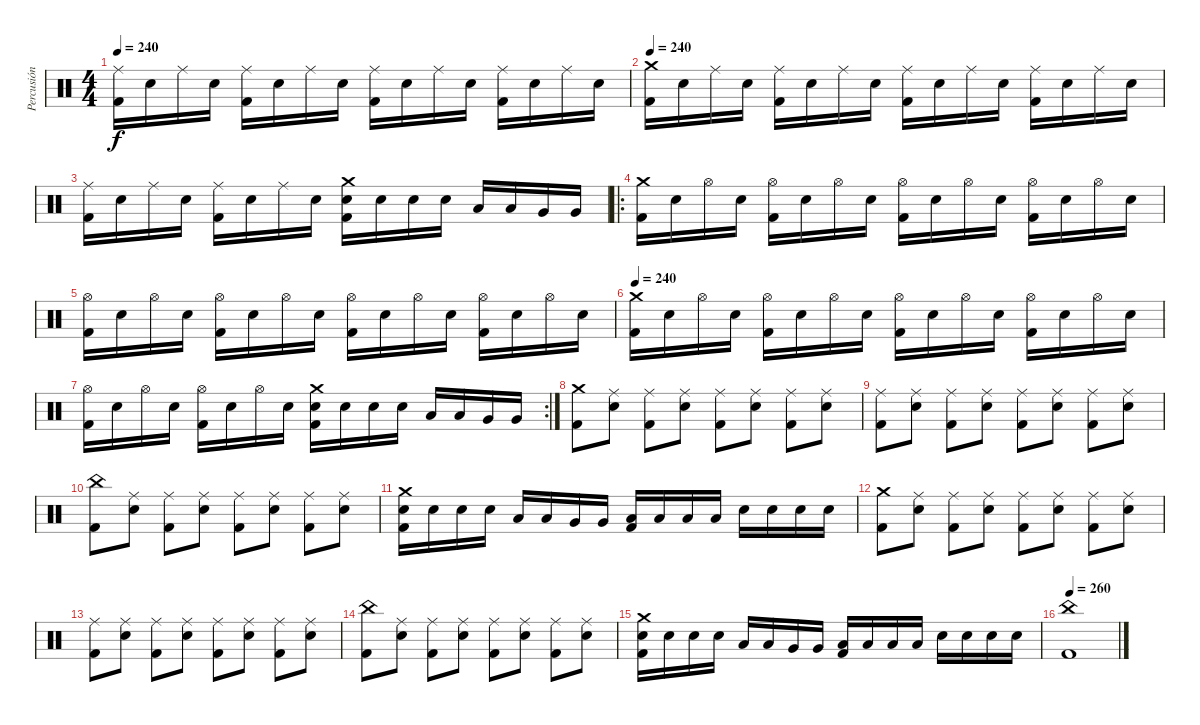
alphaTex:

\track ("Percusión" "Percusión") {instrument percussion}
\staff {score}
\articulation defaults
\ts (4 4)
\tempo 240
\clef neutral
\ks c
("Ride (middle)" "Kick (hit) 2").16{dy f} "Electric Snare (hit)".16 "Ride (middle)".16 "Electric Snare (hit)".16 ("Ride (middle)" "Kick (hit) 2").16 "Electric Snare (hit)".16 "Ride (middle)".16 "Electric Snare (hit)".16 ("Ride (middle)" "Kick (hit) 2").16 "Electric Snare (hit)".16 "Ride (middle)".16 "Electric Snare (hit)".16 ("Ride (middle)" "Kick (hit) 2").16 "Electric Snare (hit)".16 "Ride (middle)".16 "Electric Snare (hit)".16 |
\tempo 240
("Crash medium (hit)" "Kick (hit) 2").16 "Electric Snare (hit)".16 "Ride (middle)".16 "Electric Snare (hit)".16 ("Ride (middle)" "Kick (hit) 2").16 "Electric Snare (hit)".16 "Ride (middle)".16 "Electric Snare (hit)".16 ("Ride (middle)" "Kick (hit) 2").16 "Electric Snare (hit)".16 "Ride (middle)".16 "Electric Snare (hit)".16 ("Ride (middle)" "Kick (hit) 2").16 "Electric Snare (hit)".16 "Ride (middle)".16 "Electric Snare (hit)".16 |
("Ride (middle)" "Kick (hit) 2").16 "Electric Snare (hit)".16 "Ride (middle)".16 "Electric Snare (hit)".16 ("Ride (middle)" "Kick (hit) 2").16 "Electric Snare (hit)".16 "Ride (middle)".16 "Electric Snare (hit)".16 ("Crash medium (hit)" "Electric Snare (hit)" "Kick (hit) 2").16 "Electric Snare (hit)".16 "Electric Snare (hit)".16 "Electric Snare (hit)".16 "Low Tom (hit)".16 "Low Tom (hit)".16 "Very Low Tom (hit)".16 "Very Low Tom (hit)".16 |
\ro
("Crash medium (hit)" "Kick (hit) 2").16 "Electric Snare (hit)".16 "Hi-Hat (open)".16 "Electric Snare (hit)".16 ("Hi-Hat (open)" "Kick (hit) 2").16 "Electric Snare (hit)".16 "Hi-Hat (open)".16 "Electric Snare (hit)".16 ("Hi-Hat (open)" "Kick (hit) 2").16 "Electric Snare (hit)".16 "Hi-Hat (open)".16 "Electric Snare (hit)".16 ("Hi-Hat (open)" "Kick (hit) 2").16 "Electric Snare (hit)".16 "Hi-Hat (open)".16 "Electric Snare (hit)".16 |
("Hi-Hat (open)" "Kick (hit) 2").16 "Electric Snare (hit)".16 "Hi-Hat (open)".16 "Electric Snare (hit)".16 ("Hi-Hat (open)" "Kick (hit) 2").16 "Electric Snare (hit)".16 "Hi-Hat (open)".16 "Electric Snare (hit)".16 ("Hi-Hat (open)" "Kick (hit) 2").16 "Electric Snare (hit)".16 "Hi-Hat (open)".16 "Electric Snare (hit)".16 ("Hi-Hat (open)" "Kick (hit) 2").16 "Electric Snare (hit)".16 "Hi-Hat (open)".16 "Electric Snare (hit)".16 |
\tempo 240
("Crash medium (hit)" "Kick (hit) 2").16 "Electric Snare (hit)".16 "Hi-Hat (open)".16 "Electric Snare (hit)".16 ("Hi-Hat (open)" "Kick (hit) 2").16 "Electric Snare (hit)".16 "Hi-Hat (open)".16 "Electric Snare (hit)".16 ("Hi-Hat (open)" "Kick (hit) 2").16 "Electric Snare (hit)".16 "Hi-Hat (open)".16 "Electric Snare (hit)".16 ("Hi-Hat (open)" "Kick (hit) 2").16 "Electric Snare (hit)".16 "Hi-Hat (open)".16 "Electric Snare (hit)".16 |
\rc 2
("Hi-Hat (open)" "Kick (hit) 2").16 "Electric Snare (hit)".16 "Hi-Hat (open)".16 "Electric Snare (hit)".16 ("Hi-Hat (open)" "Kick (hit) 2").16 "Electric Snare (hit)".16 "Hi-Hat (open)".16 "Electric Snare (hit)".16 ("Crash medium (hit)" "Electric Snare (hit)" "Kick (hit) 2").16 "Electric Snare (hit)".16 "Electric Snare (hit)".16 "Electric Snare (hit)".16 "Low Tom (hit)".16 "Low Tom (hit)".16 "Very Low Tom (hit)".16 "Very Low Tom (hit)".16 |
("Crash medium (hit)" "Kick (hit) 2").8 ("Ride (middle)" "Electric Snare (hit)").8 ("Ride (middle)" "Kick (hit) 2").8 ("Ride (middle)" "Electric Snare (hit)").8 ("Ride (middle)" "Kick (hit) 2").8 ("Ride (middle)" "Electric Snare (hit)").8 ("Ride (middle)" "Kick (hit) 2").8 ("Ride (middle)" "Electric Snare (hit)").8 |
("Ride (middle)" "Kick (hit) 2").8 ("Ride (middle)" "Electric Snare (hit)").8 ("Ride (middle)" "Kick (hit) 2").8 ("Ride (middle)" "Electric Snare (hit)").8 ("Ride (middle)" "Kick (hit) 2").8 ("Ride (middle)" "Electric Snare (hit)").8 ("Ride (middle)" "Kick (hit) 2").8 ("Ride (middle)" "Electric Snare (hit)").8 |
("China (hit)" "Kick (hit) 2").8 ("Ride (middle)" "Electric Snare (hit)").8 ("Ride (middle)" "Kick (hit) 2").8 ("Ride (middle)" "Electric Snare (hit)").8 ("Ride (middle)" "Kick (hit) 2").8 ("Ride (middle)" "Electric Snare (hit)").8 ("Ride (middle)" "Kick (hit) 2").8 ("Ride (middle)" "Electric Snare (hit)").8 |
("Crash medium (hit)" "Electric Snare (hit)" "Kick (hit) 2").16 "Electric Snare (hit)".16 "Electric Snare (hit)".16 "Electric Snare (hit)".16 "Low Tom (hit)".16 "Low Tom (hit)".16 "Very Low Tom (hit)".16 "Very Low Tom (hit)".16 ("Low Tom (hit)" "Kick (hit) 2").16 "Low Tom (hit)".16 "Low Tom (hit)".16 "Low Tom (hit)".16 "Electric Snare (hit)".16 "Electric Snare (hit)".16 "Electric Snare (hit)".16 "Electric Snare (hit)".16 |
("Crash medium (hit)" "Kick (hit) 2").8 ("Ride (middle)" "Electric Snare (hit)").8 ("Ride (middle)" "Kick (hit) 2").8 ("Ride (middle)" "Electric Snare (hit)").8 ("Ride (middle)" "Kick (hit) 2").8 ("Ride (middle)" "Electric Snare (hit)").8 ("Ride (middle)" "Kick (hit) 2").8 ("Ride (middle)" "Electric Snare (hit)").8 |
("Ride (middle)" "Kick (hit) 2").8 ("Ride (middle)" "Electric Snare (hit)").8 ("Ride (middle)" "Kick (hit) 2").8 ("Ride (middle)" "Electric Snare (hit)").8 ("Ride (middle)" "Kick (hit) 2").8 ("Ride (middle)" "Electric Snare (hit)").8 ("Ride (middle)" "Kick (hit) 2").8 ("Ride (middle)" "Electric Snare (hit)").8 |
("China (hit)" "Kick (hit) 2").8 ("Ride (middle)" "Electric Snare (hit)").8 ("Ride (middle)" "Kick (hit) 2").8 ("Ride (middle)" "Electric Snare (hit)").8 ("Ride (middle)" "Kick (hit) 2").8 ("Ride (middle)" "Electric Snare (hit)").8 ("Ride (middle)" "Kick (hit) 2").8 ("Ride (middle)" "Electric Snare (hit)").8 |
("Crash medium (hit)" "Electric Snare (hit)" "Kick (hit) 2").16 "Electric Snare (hit)".16 "Electric Snare (hit)".16 "Electric Snare (hit)".16 "Low Tom (hit)".16 "Low Tom (hit)".16 "Very Low Tom (hit)".16 "Very Low Tom (hit)".16 ("Low Tom (hit)" "Kick (hit) 2").16 "Low Tom (hit)".16 "Low Tom (hit)".16 "Low Tom (hit)".16 "Electric Snare (hit)".16 "Electric Snare (hit)".16 "Electric Snare (hit)".16 "Electric Snare (hit)".16 |
\tempo 270
\tempo 260
("China (hit)" "Kick (hit) 2").1
